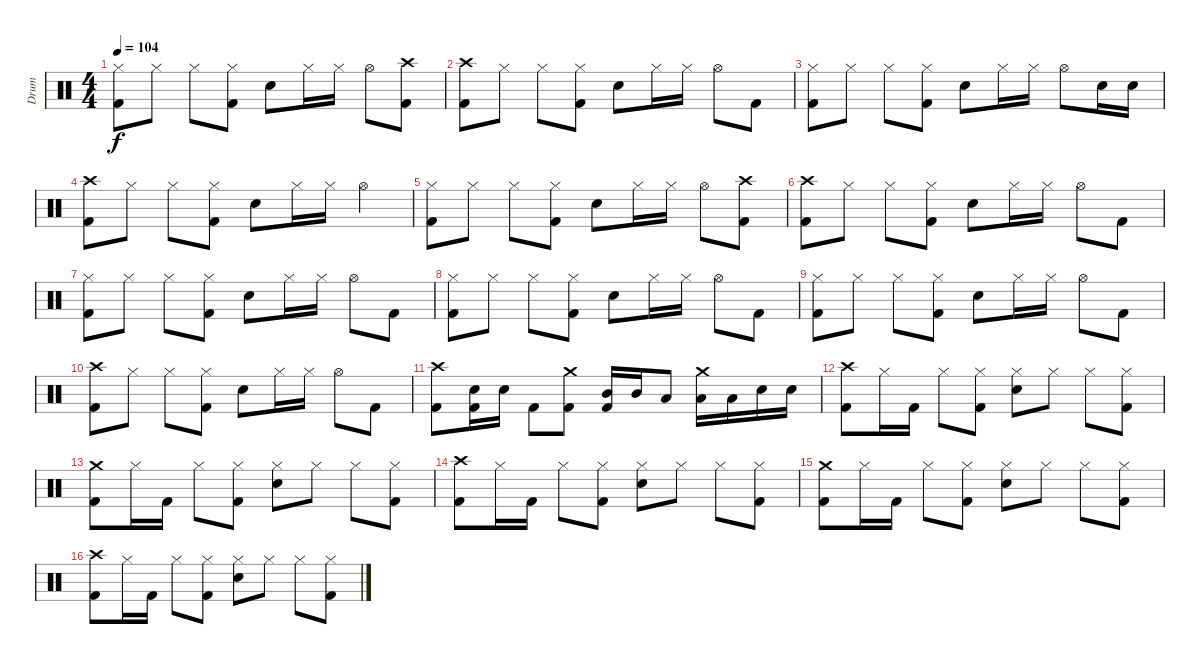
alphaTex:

\track ("Drum" "Drum") {instrument percussion}
\staff {score}
\articulation defaults
\ts (4 4)
\tempo 104
\clef neutral
\ks c
("Hi-Hat (closed)" "Kick (hit) 2").8{dy f} "Hi-Hat (closed)".8 "Hi-Hat (closed)".8 ("Hi-Hat (closed)" "Kick (hit) 2").8 "Snare (hit) 2".8 "Hi-Hat (closed)".16 "Hi-Hat (closed)".16 "Hi-Hat (open)".8 ("Crash high (hit)" "Kick (hit) 2").8 |
("Crash high (hit)" "Kick (hit) 2").8 "Hi-Hat (closed)".8 "Hi-Hat (closed)".8 ("Hi-Hat (closed)" "Kick (hit) 2").8 "Snare (hit) 2".8 "Hi-Hat (closed)".16 "Hi-Hat (closed)".16 "Hi-Hat (open)".8 "Kick (hit) 2".8 |
("Hi-Hat (closed)" "Kick (hit) 2").8 "Hi-Hat (closed)".8 "Hi-Hat (closed)".8 ("Hi-Hat (closed)" "Kick (hit) 2").8 "Snare (hit) 2".8 "Hi-Hat (closed)".16 "Hi-Hat (closed)".16 "Hi-Hat (open)".8 "Snare (hit) 2".16 "Snare (hit) 2".16 |
("Crash high (hit)" "Kick (hit) 2").8 "Hi-Hat (closed)".8 "Hi-Hat (closed)".8 ("Hi-Hat (closed)" "Kick (hit) 2").8 "Snare (hit) 2".8 "Hi-Hat (closed)".16 "Hi-Hat (closed)".16 "Hi-Hat (open)".4 |
("Hi-Hat (closed)" "Kick (hit) 2").8 "Hi-Hat (closed)".8 "Hi-Hat (closed)".8 ("Hi-Hat (closed)" "Kick (hit) 2").8 "Snare (hit) 2".8 "Hi-Hat (closed)".16 "Hi-Hat (closed)".16 "Hi-Hat (open)".8 ("Crash high (hit)" "Kick (hit) 2").8 |
("Crash high (hit)" "Kick (hit) 2").8 "Hi-Hat (closed)".8 "Hi-Hat (closed)".8 ("Hi-Hat (closed)" "Kick (hit) 2").8 "Snare (hit) 2".8 "Hi-Hat (closed)".16 "Hi-Hat (closed)".16 "Hi-Hat (open)".8 "Kick (hit) 2".8 |
("Hi-Hat (closed)" "Kick (hit) 2").8 "Hi-Hat (closed)".8 "Hi-Hat (closed)".8 ("Hi-Hat (closed)" "Kick (hit) 2").8 "Snare (hit) 2".8 "Hi-Hat (closed)".16 "Hi-Hat (closed)".16 "Hi-Hat (open)".8 "Kick (hit) 2".8 |
("Hi-Hat (closed)" "Kick (hit) 2").8 "Hi-Hat (closed)".8 "Hi-Hat (closed)".8 ("Hi-Hat (closed)" "Kick (hit) 2").8 "Snare (hit) 2".8 "Hi-Hat (closed)".16 "Hi-Hat (closed)".16 "Hi-Hat (open)".8 "Kick (hit) 2".8 |
("Hi-Hat (closed)" "Kick (hit) 2").8 "Hi-Hat (closed)".8 "Hi-Hat (closed)".8 ("Hi-Hat (closed)" "Kick (hit) 2").8 "Snare (hit) 2".8 "Hi-Hat (closed)".16 "Hi-Hat (closed)".16 "Hi-Hat (open)".8 "Kick (hit) 2".8 |
("Crash high (hit)" "Kick (hit) 2").8 "Hi-Hat (closed)".8 "Hi-Hat (closed)".8 ("Hi-Hat (closed)" "Kick (hit) 2").8 "Snare (hit) 2".8 "Hi-Hat (closed)".16 "Hi-Hat (closed)".16 "Hi-Hat (open)".8 "Kick (hit) 2".8 |
("Crash high (hit)" "Kick (hit) 2").8 ("Snare (hit) 2" "Kick (hit) 2").16 "Snare (hit) 2".16 "Kick (hit) 2".8 ("Crash medium (hit)" "Kick (hit) 2").8 ("Mid Tom (hit)" "Kick (hit) 2").16 "Mid Tom (hit)".16 "Low Tom (hit)".8 ("Crash medium (hit)" "Low Tom (hit)").16 "Low Tom (hit)".16 "Snare (hit) 2".16 "Snare (hit) 2".16 |
("Crash high (hit)" "Kick (hit) 2").8 "Hi-Hat (closed)".16 "Kick (hit) 2".16 "Hi-Hat (closed)".8 ("Hi-Hat (closed)" "Kick (hit) 2").8 ("Hi-Hat (closed)" "Snare (hit) 2").8 "Hi-Hat (closed)".8 "Hi-Hat (closed)".8 ("Hi-Hat (closed)" "Kick (hit) 2").8 |
("Crash medium (hit)" "Kick (hit) 2").8 "Hi-Hat (closed)".16 "Kick (hit) 2".16 "Hi-Hat (closed)".8 ("Hi-Hat (closed)" "Kick (hit) 2").8 ("Hi-Hat (closed)" "Snare (hit) 2").8 "Hi-Hat (closed)".8 "Hi-Hat (closed)".8 ("Hi-Hat (closed)" "Kick (hit) 2").8 |
("Crash high (hit)" "Kick (hit) 2").8 "Hi-Hat (closed)".16 "Kick (hit) 2".16 "Hi-Hat (closed)".8 ("Hi-Hat (closed)" "Kick (hit) 2").8 ("Hi-Hat (closed)" "Snare (hit) 2").8 "Hi-Hat (closed)".8 "Hi-Hat (closed)".8 ("Hi-Hat (closed)" "Kick (hit) 2").8 |
("Crash medium (hit)" "Kick (hit) 2").8 "Hi-Hat (closed)".16 "Kick (hit) 2".16 "Hi-Hat (closed)".8 ("Hi-Hat (closed)" "Kick (hit) 2").8 ("Hi-Hat (closed)" "Snare (hit) 2").8 "Hi-Hat (closed)".8 "Hi-Hat (closed)".8 ("Hi-Hat (closed)" "Kick (hit) 2").8 |
("Crash high (hit)" "Kick (hit) 2").8 "Hi-Hat (closed)".16 "Kick (hit) 2".16 "Hi-Hat (closed)".8 ("Hi-Hat (closed)" "Kick (hit) 2").8 ("Hi-Hat (closed)" "Snare (hit) 2").8 "Hi-Hat (closed)".8 "Hi-Hat (closed)".8 ("Hi-Hat (closed)" "Kick (hit) 2").8
